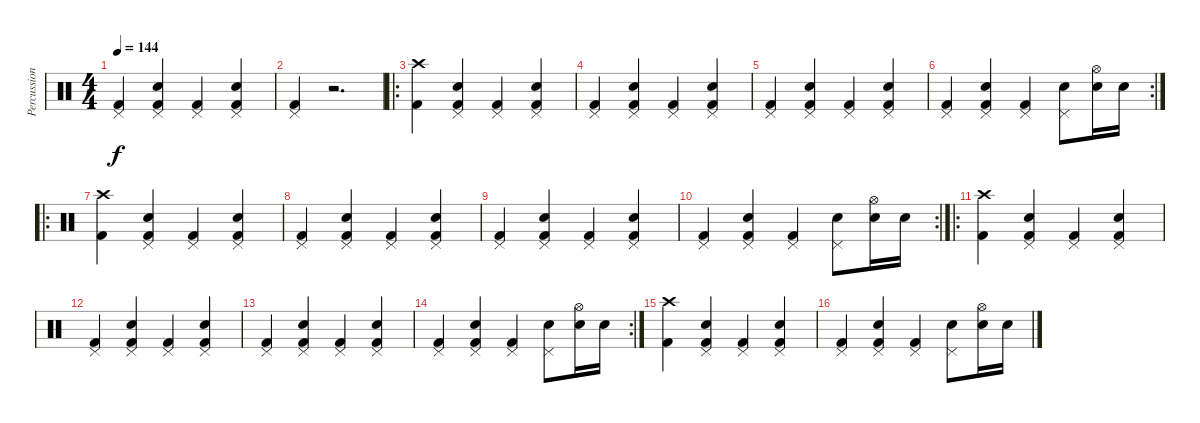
\track ("Percussion" "Percussion") {instrument percussion}
\staff {score}
\articulation defaults
\ts (4 4)
\tempo 144
\clef neutral
\ks c
("Pedal Hi-Hat (hit)" "Kick (hit) 2").4{dy f} ("Pedal Hi-Hat (hit)" "Electric Snare (hit)" "Kick (hit) 2").4 ("Pedal Hi-Hat (hit)" "Kick (hit) 2").4 ("Pedal Hi-Hat (hit)" "Electric Snare (hit)" "Kick (hit) 2").4 |
("Pedal Hi-Hat (hit)" "Kick (hit) 2").4 r.2{d} |
\ro
("Crash high (hit)" "Kick (hit) 2").4 ("Pedal Hi-Hat (hit)" "Electric Snare (hit)" "Kick (hit) 2").4 ("Pedal Hi-Hat (hit)" "Kick (hit) 2").4 ("Pedal Hi-Hat (hit)" "Electric Snare (hit)" "Kick (hit) 2").4 |
("Pedal Hi-Hat (hit)" "Kick (hit) 2").4 ("Pedal Hi-Hat (hit)" "Electric Snare (hit)" "Kick (hit) 2").4 ("Pedal Hi-Hat (hit)" "Kick (hit) 2").4 ("Pedal Hi-Hat (hit)" "Electric Snare (hit)" "Kick (hit) 2").4 |
("Pedal Hi-Hat (hit)" "Kick (hit) 2").4 ("Pedal Hi-Hat (hit)" "Electric Snare (hit)" "Kick (hit) 2").4 ("Pedal Hi-Hat (hit)" "Kick (hit) 2").4 ("Pedal Hi-Hat (hit)" "Electric Snare (hit)" "Kick (hit) 2").4 |
\rc 2
("Pedal Hi-Hat (hit)" "Kick (hit) 2").4 ("Pedal Hi-Hat (hit)" "Electric Snare (hit)" "Kick (hit) 2").4 ("Pedal Hi-Hat (hit)" "Kick (hit) 2").4 ("Pedal Hi-Hat (hit)" "Electric Snare (hit)").8 ("Hi-Hat (open)" "Electric Snare (hit)").16 "Electric Snare (hit)".16 |
\ro
("Crash high (hit)" "Kick (hit) 2").4 ("Pedal Hi-Hat (hit)" "Electric Snare (hit)" "Kick (hit) 2").4 ("Pedal Hi-Hat (hit)" "Kick (hit) 2").4 ("Pedal Hi-Hat (hit)" "Electric Snare (hit)" "Kick (hit) 2").4 |
("Pedal Hi-Hat (hit)" "Kick (hit) 2").4 ("Pedal Hi-Hat (hit)" "Electric Snare (hit)" "Kick (hit) 2").4 ("Pedal Hi-Hat (hit)" "Kick (hit) 2").4 ("Pedal Hi-Hat (hit)" "Electric Snare (hit)" "Kick (hit) 2").4 |
("Pedal Hi-Hat (hit)" "Kick (hit) 2").4 ("Pedal Hi-Hat (hit)" "Electric Snare (hit)" "Kick (hit) 2").4 ("Pedal Hi-Hat (hit)" "Kick (hit) 2").4 ("Pedal Hi-Hat (hit)" "Electric Snare (hit)" "Kick (hit) 2").4 |
\rc 2
("Pedal Hi-Hat (hit)" "Kick (hit) 2").4 ("Pedal Hi-Hat (hit)" "Electric Snare (hit)" "Kick (hit) 2").4 ("Pedal Hi-Hat (hit)" "Kick (hit) 2").4 ("Pedal Hi-Hat (hit)" "Electric Snare (hit)").8 ("Hi-Hat (open)" "Electric Snare (hit)").16 "Electric Snare (hit)".16 |
\ro
("Crash high (hit)" "Kick (hit) 2").4 ("Pedal Hi-Hat (hit)" "Electric Snare (hit)" "Kick (hit) 2").4 ("Pedal Hi-Hat (hit)" "Kick (hit) 2").4 ("Pedal Hi-Hat (hit)" "Electric Snare (hit)" "Kick (hit) 2").4 |
("Pedal Hi-Hat (hit)" "Kick (hit) 2").4 ("Pedal Hi-Hat (hit)" "Electric Snare (hit)" "Kick (hit) 2").4 ("Pedal Hi-Hat (hit)" "Kick (hit) 2").4 ("Pedal Hi-Hat (hit)" "Electric Snare (hit)" "Kick (hit) 2").4 |
("Pedal Hi-Hat (hit)" "Kick (hit) 2").4 ("Pedal Hi-Hat (hit)" "Electric Snare (hit)" "Kick (hit) 2").4 ("Pedal Hi-Hat (hit)" "Kick (hit) 2").4 ("Pedal Hi-Hat (hit)" "Electric Snare (hit)" "Kick (hit) 2").4 |
\rc 2
("Pedal Hi-Hat (hit)" "Kick (hit) 2").4 ("Pedal Hi-Hat (hit)" "Electric Snare (hit)" "Kick (hit) 2").4 ("Pedal Hi-Hat (hit)" "Kick (hit) 2").4 ("Pedal Hi-Hat (hit)" "Electric Snare (hit)").8 ("Hi-Hat (open)" "Electric Snare (hit)").16 "Electric Snare (hit)".16 |
("Crash high (hit)" "Kick (hit) 2").4 ("Pedal Hi-Hat (hit)" "Electric Snare (hit)" "Kick (hit) 2").4 ("Pedal Hi-Hat (hit)" "Kick (hit) 2").4 ("Pedal Hi-Hat (hit)" "Electric Snare (hit)" "Kick (hit) 2").4 |
("Pedal Hi-Hat (hit)" "Kick (hit) 2").4 ("Pedal Hi-Hat (hit)" "Electric Snare (hit)" "Kick (hit) 2").4 ("Pedal Hi-Hat (hit)" "Kick (hit) 2").4 ("Pedal Hi-Hat (hit)" "Electric Snare (hit)").8 ("Hi-Hat (open)" "Electric Snare (hit)").16 "Electric Snare (hit)".16
